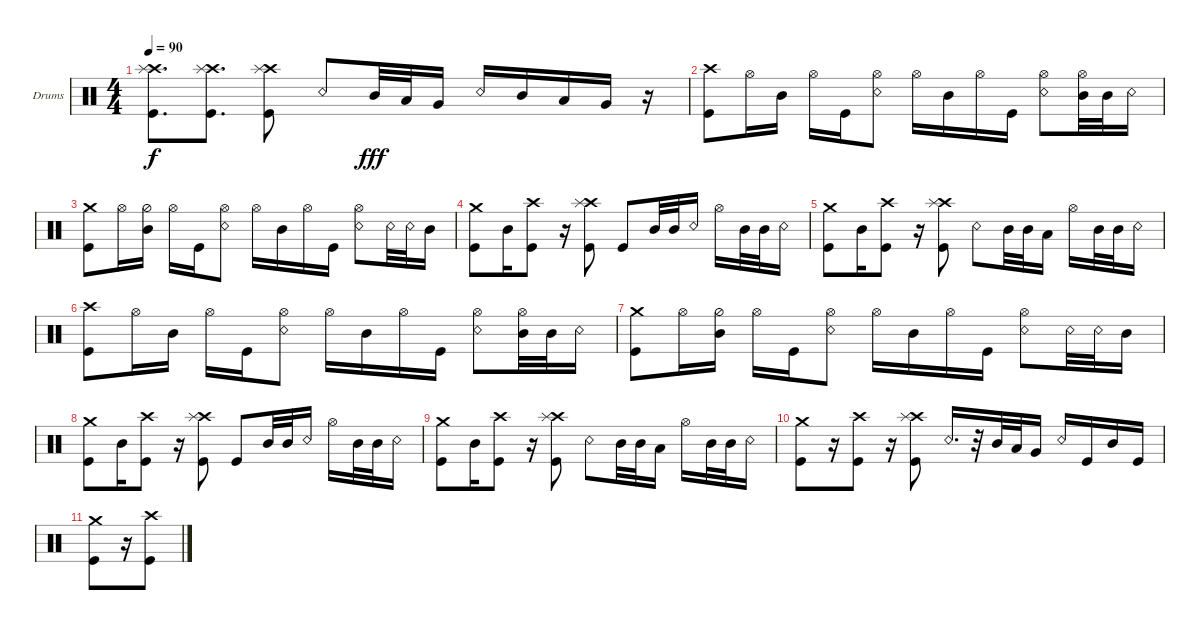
\bracketExtendMode groupsimilarinstruments
\firstSystemTrackNameOrientation horizontal
\otherSystemsTrackNameOrientation horizontal
\track ("Drumkit" "Drums") {instrument percussion}
\staff {score}
\articulation defaults
\ts (4 4)
\tempo 90
\clef neutral
\scale
0.333333
\ks c
("Kick (hit)" "Crash high (hit)" "Splash (hit)").8{d dy f} ("Kick (hit)" "Crash high (hit)" "Splash (hit)").8{d} ("Kick (hit)" "Crash high (hit)" "Splash (hit)").8 "Snare (rim shot)".8 "Mid Tom (hit)".32{dy fff} "Low Tom (hit)".32 "Very Low Tom (hit)".16 "Snare (rim shot)".16 "Mid Tom (hit)".16 "Low Tom (hit)".16 "Very Low Tom (hit)".16 r.16 |
\scale
0.333333 ("Kick (hit)" "Crash high (hit)").8 "Hi-Hat (open)".16 "Mid Tom (hit)".16 "Hi-Hat (open)".16 "Kick (hit)".16 ("Snare (rim shot)" "Hi-Hat (open)").8 "Hi-Hat (open)".16 "Mid Tom (hit)".16 "Hi-Hat (open)".16 "Kick (hit)".16 ("Snare (rim shot)" "Hi-Hat (open)").8 ("Mid Tom (hit)" "Hi-Hat (open)").32 "Mid Tom (hit)".32 "Snare (rim shot)".16 |
\scale
0.333333 ("Kick (hit)" "Crash medium (hit)").8 "Hi-Hat (open)".16 ("Mid Tom (hit)" "Hi-Hat (half)").16 "Hi-Hat (open)".16 "Kick (hit)".16 ("Snare (rim shot)" "Hi-Hat (open)").8 "Hi-Hat (open)".16 "Mid Tom (hit)".16 "Hi-Hat (open)".16 "Kick (hit)".16 ("Snare (rim shot)" "Hi-Hat (open)").8 "Snare (rim shot)".32 "Snare (rim shot)".32 "Mid Tom (hit)".16 |
\scale
0.333333 ("Kick (hit)" "Crash medium (hit)").8 "Mid Tom (hit)".16 ("Kick (hit)" "Crash high (hit)").8 r.16 ("Kick (hit)" "Crash high (hit)" "Splash (hit)").8 "Kick (hit)".8 "Mid Tom (hit)".32 "Mid Tom (hit)".32 "Snare (rim shot)".16 "Hi-Hat (open)".16 "Mid Tom (hit)".32 "Mid Tom (hit)".32 "Snare (rim shot)".16 |
\scale
0.333333 ("Kick (hit)" "Crash medium (hit)").8 "Mid Tom (hit)".16 ("Kick (hit)" "Crash high (hit)").8 r.16 ("Kick (hit)" "Crash high (hit)" "Splash (hit)").8 "Snare (rim shot)".8 "Mid Tom (hit)".32 "Mid Tom (hit)".32 "Low Tom (hit)".16 "Hi-Hat (open)".16 "Mid Tom (hit)".32 "Mid Tom (hit)".32 "Snare (rim shot)".16 |
("Kick (hit)" "Crash high (hit)").8 "Hi-Hat (open)".16 "Mid Tom (hit)".16 "Hi-Hat (open)".16 "Kick (hit)".16 ("Snare (rim shot)" "Hi-Hat (open)").8 "Hi-Hat (open)".16 "Mid Tom (hit)".16 "Hi-Hat (open)".16 "Kick (hit)".16 ("Snare (rim shot)" "Hi-Hat (open)").8 ("Mid Tom (hit)" "Hi-Hat (open)").32 "Mid Tom (hit)".32 "Snare (rim shot)".16 |
("Kick (hit)" "Crash medium (hit)").8 "Hi-Hat (open)".16 ("Mid Tom (hit)" "Hi-Hat (half)").16 "Hi-Hat (open)".16 "Kick (hit)".16 ("Snare (rim shot)" "Hi-Hat (open)").8 "Hi-Hat (open)".16 "Mid Tom (hit)".16 "Hi-Hat (open)".16 "Kick (hit)".16 ("Snare (rim shot)" "Hi-Hat (open)").8 "Snare (rim shot)".32 "Snare (rim shot)".32 "Mid Tom (hit)".16 |
("Kick (hit)" "Crash medium (hit)").8 "Mid Tom (hit)".16 ("Kick (hit)" "Crash high (hit)").8 r.16 ("Kick (hit)" "Crash high (hit)" "Splash (hit)").8 "Kick (hit)".8 "Mid Tom (hit)".32 "Mid Tom (hit)".32 "Snare (rim shot)".16 "Hi-Hat (open)".16 "Mid Tom (hit)".32 "Mid Tom (hit)".32 "Snare (rim shot)".16 |
("Kick (hit)" "Crash medium (hit)").8 "Mid Tom (hit)".16 ("Kick (hit)" "Crash high (hit)").8 r.16 ("Kick (hit)" "Crash high (hit)" "Splash (hit)").8 "Snare (rim shot)".8 "Mid Tom (hit)".32 "Mid Tom (hit)".32 "Low Tom (hit)".16 "Hi-Hat (open)".16 "Mid Tom (hit)".32 "Mid Tom (hit)".32 "Snare (rim shot)".16 |
("Kick (hit)" "Crash medium (hit)").8 r.16 ("Kick (hit)" "Crash high (hit)").8 r.16 ("Kick (hit)" "Crash high (hit)" "Splash (hit)").8 "Snare (rim shot)".16{d} r.32 "Mid Tom (hit)".32 "Low Tom (hit)".32 "Very Low Tom (hit)".16 "Snare (rim shot)".16 "Kick (hit)".16 "Mid Tom (hit)".16 "Kick (hit)".16 |
\scale
0.333333 ("Kick (hit)" "Crash medium (hit)").8 r.16 ("Kick (hit)" "Crash high (hit)").8 |
\scale
0.333333
